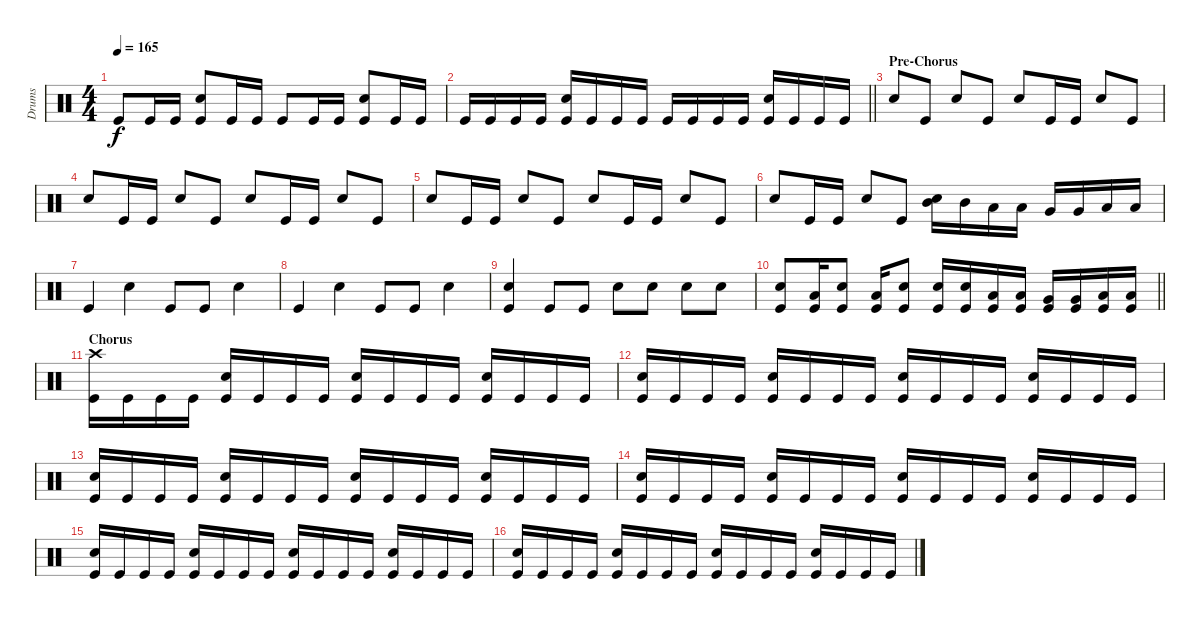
\track ("Drums" "Drums") {instrument percussion}
\staff {score}
\articulation defaults
\ts (4 4)
\tempo 165
\clef neutral
\ks c "Kick (hit)".8{dy f} "Kick (hit)".16 "Kick (hit)".16
("Kick (hit)" "Snare (hit) 2").8 "Kick (hit)".16 "Kick (hit)".16 "Kick (hit)".8 "Kick (hit)".16 "Kick (hit)".16 ("Kick (hit)" "Snare (hit) 2").8 "Kick (hit)".16 "Kick (hit)".16 |
\barLineRight lightlight "Kick (hit)".16 "Kick (hit)".16 "Kick (hit)".16 "Kick (hit)".16
("Kick (hit)" "Snare (hit) 2").16 "Kick (hit)".16 "Kick (hit)".16 "Kick (hit)".16 "Kick (hit)".16 "Kick (hit)".16 "Kick (hit)".16 "Kick (hit)".16 ("Kick (hit)" "Snare (hit) 2").16 "Kick (hit)".16 "Kick (hit)".16 "Kick (hit)".16 |
\section ("" "Pre-Chorus")
"Snare (hit) 2".8 "Kick (hit)".8 "Snare (hit) 2".8 "Kick (hit)".8 "Snare (hit) 2".8 "Kick (hit)".16 "Kick (hit)".16 "Snare (hit) 2".8 "Kick (hit)".8 |
"Snare (hit) 2".8 "Kick (hit)".16 "Kick (hit)".16 "Snare (hit) 2".8 "Kick (hit)".8 "Snare (hit) 2".8 "Kick (hit)".16 "Kick (hit)".16 "Snare (hit) 2".8 "Kick (hit)".8 |
"Snare (hit) 2".8 "Kick (hit)".16 "Kick (hit)".16 "Snare (hit) 2".8 "Kick (hit)".8 "Snare (hit) 2".8 "Kick (hit)".16 "Kick (hit)".16 "Snare (hit) 2".8 "Kick (hit)".8 |
"Snare (hit) 2".8 "Kick (hit)".16 "Kick (hit)".16 "Snare (hit) 2".8 "Kick (hit)".8 ("Snare (hit) 2" "Mid Tom (hit)").16 "Mid Tom (hit)".16 "Low Tom (hit)".16 "Low Tom (hit)".16 "Very Low Tom (hit)".16 "Very Low Tom (hit)".16 "Low Floor Tom (hit)".16 "Low Floor Tom (hit)".16 |
"Kick (hit)".4 "Snare (hit) 2".4 "Kick (hit)".8 "Kick (hit)".8 "Snare (hit) 2".4 |
"Kick (hit)".4 "Snare (hit) 2".4 "Kick (hit)".8 "Kick (hit)".8 "Snare (hit) 2".4 |
("Kick (hit)" "Snare (hit) 2").4 "Kick (hit)".8 "Kick (hit)".8 "Snare (hit) 2".8 "Snare (hit) 2".8 "Snare (hit) 2".8 "Snare (hit) 2".8 |
\barLineRight lightlight
("Kick (hit)" "Snare (hit) 2").8 ("Kick (hit)" "Low Tom (hit)").16 ("Kick (hit)" "Snare (hit) 2").8 ("Kick (hit)" "Low Tom (hit)").16 ("Kick (hit)" "Snare (hit) 2").8 ("Kick (hit)" "Snare (hit) 2").16 ("Kick (hit)" "Snare (hit) 2").16 ("Kick (hit)" "Low Tom (hit)").16 ("Kick (hit)" "Low Tom (hit)").16 ("Kick (hit)" "Very Low Tom (hit)").16 ("Kick (hit)" "Very Low Tom (hit)").16 ("Kick (hit)" "Low Floor Tom (hit)").16 ("Kick (hit)" "Low Floor Tom (hit)").16 |
\section ("" "Chorus")
("Kick (hit)" "Crash high (hit)").16 "Kick (hit)".16 "Kick (hit)".16 "Kick (hit)".16 ("Kick (hit)" "Snare (hit) 2").16 "Kick (hit)".16 "Kick (hit)".16 "Kick (hit)".16 ("Kick (hit)" "Snare (hit) 2").16 "Kick (hit)".16 "Kick (hit)".16 "Kick (hit)".16 ("Kick (hit)" "Snare (hit) 2").16 "Kick (hit)".16 "Kick (hit)".16 "Kick (hit)".16 |
("Kick (hit)" "Snare (hit) 2").16 "Kick (hit)".16 "Kick (hit)".16 "Kick (hit)".16 ("Kick (hit)" "Snare (hit) 2").16 "Kick (hit)".16 "Kick (hit)".16 "Kick (hit)".16 ("Kick (hit)" "Snare (hit) 2").16 "Kick (hit)".16 "Kick (hit)".16 "Kick (hit)".16 ("Kick (hit)" "Snare (hit) 2").16 "Kick (hit)".16 "Kick (hit)".16 "Kick (hit)".16 |
("Kick (hit)" "Snare (hit) 2").16 "Kick (hit)".16 "Kick (hit)".16 "Kick (hit)".16 ("Kick (hit)" "Snare (hit) 2").16 "Kick (hit)".16 "Kick (hit)".16 "Kick (hit)".16 ("Kick (hit)" "Snare (hit) 2").16 "Kick (hit)".16 "Kick (hit)".16 "Kick (hit)".16 ("Kick (hit)" "Snare (hit) 2").16 "Kick (hit)".16 "Kick (hit)".16 "Kick (hit)".16 |
("Kick (hit)" "Snare (hit) 2").16 "Kick (hit)".16 "Kick (hit)".16 "Kick (hit)".16 ("Kick (hit)" "Snare (hit) 2").16 "Kick (hit)".16 "Kick (hit)".16 "Kick (hit)".16 ("Kick (hit)" "Snare (hit) 2").16 "Kick (hit)".16 "Kick (hit)".16 "Kick (hit)".16 ("Kick (hit)" "Snare (hit) 2").16 "Kick (hit)".16 "Kick (hit)".16 "Kick (hit)".16 |
("Kick (hit)" "Snare (hit) 2").16 "Kick (hit)".16 "Kick (hit)".16 "Kick (hit)".16 ("Kick (hit)" "Snare (hit) 2").16 "Kick (hit)".16 "Kick (hit)".16 "Kick (hit)".16 ("Kick (hit)" "Snare (hit) 2").16 "Kick (hit)".16 "Kick (hit)".16 "Kick (hit)".16 ("Kick (hit)" "Snare (hit) 2").16 "Kick (hit)".16 "Kick (hit)".16 "Kick (hit)".16 |
("Kick (hit)" "Snare (hit) 2").16 "Kick (hit)".16 "Kick (hit)".16 "Kick (hit)".16 ("Kick (hit)" "Snare (hit) 2").16 "Kick (hit)".16 "Kick (hit)".16 "Kick (hit)".16 ("Kick (hit)" "Snare (hit) 2").16 "Kick (hit)".16 "Kick (hit)".16 "Kick (hit)".16 ("Kick (hit)" "Snare (hit) 2").16 "Kick (hit)".16 "Kick (hit)".16 "Kick (hit)".16
